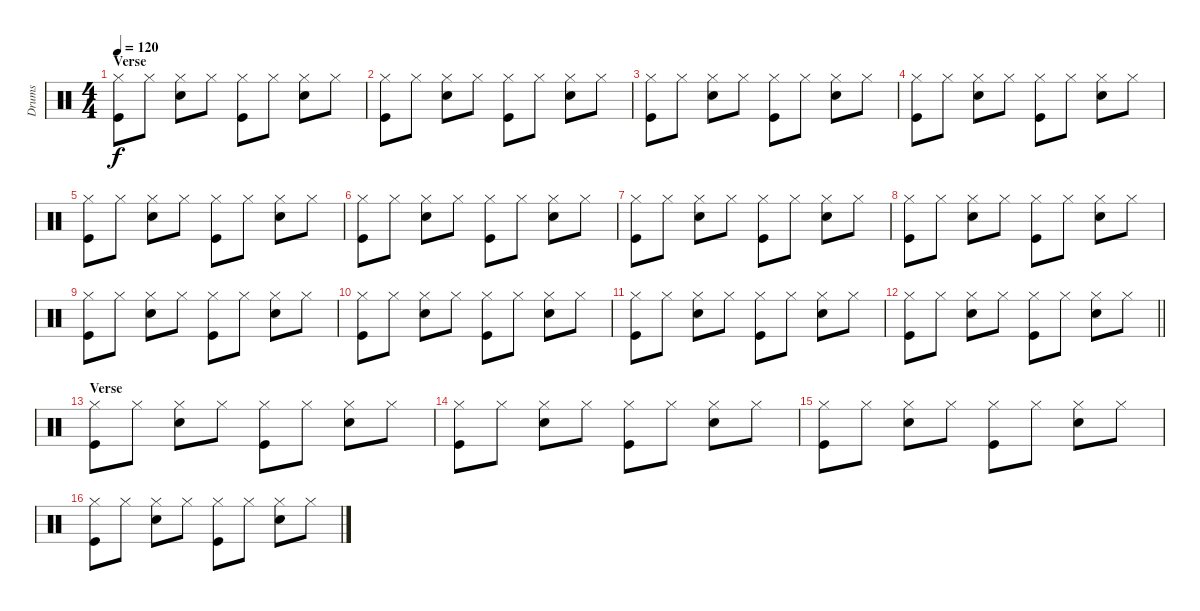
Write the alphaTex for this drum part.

\track ("Drums" "Drums") {instrument percussion}
\staff {score}
\articulation defaults
\ts (4 4)
\section ("" "Verse")
\tempo 120
\clef neutral
\ks c
("Hi-Hat (closed)" "Kick (hit)").8{dy f} "Hi-Hat (closed)".8 ("Hi-Hat (closed)" "Snare (hit) 2").8 "Hi-Hat (closed)".8 ("Hi-Hat (closed)" "Kick (hit)").8 "Hi-Hat (closed)".8 ("Hi-Hat (closed)" "Snare (hit) 2").8 "Hi-Hat (closed)".8 |
("Hi-Hat (closed)" "Kick (hit)").8 "Hi-Hat (closed)".8 ("Hi-Hat (closed)" "Snare (hit) 2").8 "Hi-Hat (closed)".8 ("Hi-Hat (closed)" "Kick (hit)").8 "Hi-Hat (closed)".8 ("Hi-Hat (closed)" "Snare (hit) 2").8 "Hi-Hat (closed)".8 |
("Hi-Hat (closed)" "Kick (hit)").8 "Hi-Hat (closed)".8 ("Hi-Hat (closed)" "Snare (hit) 2").8 "Hi-Hat (closed)".8 ("Hi-Hat (closed)" "Kick (hit)").8 "Hi-Hat (closed)".8 ("Hi-Hat (closed)" "Snare (hit) 2").8 "Hi-Hat (closed)".8 |
("Hi-Hat (closed)" "Kick (hit)").8 "Hi-Hat (closed)".8 ("Hi-Hat (closed)" "Snare (hit) 2").8 "Hi-Hat (closed)".8 ("Hi-Hat (closed)" "Kick (hit)").8 "Hi-Hat (closed)".8 ("Hi-Hat (closed)" "Snare (hit) 2").8 "Hi-Hat (closed)".8 |
("Hi-Hat (closed)" "Kick (hit)").8 "Hi-Hat (closed)".8 ("Hi-Hat (closed)" "Snare (hit) 2").8 "Hi-Hat (closed)".8 ("Hi-Hat (closed)" "Kick (hit)").8 "Hi-Hat (closed)".8 ("Hi-Hat (closed)" "Snare (hit) 2").8 "Hi-Hat (closed)".8 |
("Hi-Hat (closed)" "Kick (hit)").8 "Hi-Hat (closed)".8 ("Hi-Hat (closed)" "Snare (hit) 2").8 "Hi-Hat (closed)".8 ("Hi-Hat (closed)" "Kick (hit)").8 "Hi-Hat (closed)".8 ("Hi-Hat (closed)" "Snare (hit) 2").8 "Hi-Hat (closed)".8 |
("Hi-Hat (closed)" "Kick (hit)").8 "Hi-Hat (closed)".8 ("Hi-Hat (closed)" "Snare (hit) 2").8 "Hi-Hat (closed)".8 ("Hi-Hat (closed)" "Kick (hit)").8 "Hi-Hat (closed)".8 ("Hi-Hat (closed)" "Snare (hit) 2").8 "Hi-Hat (closed)".8 |
("Hi-Hat (closed)" "Kick (hit)").8 "Hi-Hat (closed)".8 ("Hi-Hat (closed)" "Snare (hit) 2").8 "Hi-Hat (closed)".8 ("Hi-Hat (closed)" "Kick (hit)").8 "Hi-Hat (closed)".8 ("Hi-Hat (closed)" "Snare (hit) 2").8 "Hi-Hat (closed)".8 |
("Hi-Hat (closed)" "Kick (hit)").8 "Hi-Hat (closed)".8 ("Hi-Hat (closed)" "Snare (hit) 2").8 "Hi-Hat (closed)".8 ("Hi-Hat (closed)" "Kick (hit)").8 "Hi-Hat (closed)".8 ("Hi-Hat (closed)" "Snare (hit) 2").8 "Hi-Hat (closed)".8 |
("Hi-Hat (closed)" "Kick (hit)").8 "Hi-Hat (closed)".8 ("Hi-Hat (closed)" "Snare (hit) 2").8 "Hi-Hat (closed)".8 ("Hi-Hat (closed)" "Kick (hit)").8 "Hi-Hat (closed)".8 ("Hi-Hat (closed)" "Snare (hit) 2").8 "Hi-Hat (closed)".8 |
("Hi-Hat (closed)" "Kick (hit)").8 "Hi-Hat (closed)".8 ("Hi-Hat (closed)" "Snare (hit) 2").8 "Hi-Hat (closed)".8 ("Hi-Hat (closed)" "Kick (hit)").8 "Hi-Hat (closed)".8 ("Hi-Hat (closed)" "Snare (hit) 2").8 "Hi-Hat (closed)".8 |
\barLineRight lightlight
("Hi-Hat (closed)" "Kick (hit)").8 "Hi-Hat (closed)".8 ("Hi-Hat (closed)" "Snare (hit) 2").8 "Hi-Hat (closed)".8 ("Hi-Hat (closed)" "Kick (hit)").8 "Hi-Hat (closed)".8 ("Hi-Hat (closed)" "Snare (hit) 2").8 "Hi-Hat (closed)".8 |
\section ("" "Verse")
("Hi-Hat (closed)" "Kick (hit)").8 "Hi-Hat (closed)".8 ("Hi-Hat (closed)" "Snare (hit) 2").8 "Hi-Hat (closed)".8 ("Hi-Hat (closed)" "Kick (hit)").8 "Hi-Hat (closed)".8 ("Hi-Hat (closed)" "Snare (hit) 2").8 "Hi-Hat (closed)".8 |
("Hi-Hat (closed)" "Kick (hit)").8 "Hi-Hat (closed)".8 ("Hi-Hat (closed)" "Snare (hit) 2").8 "Hi-Hat (closed)".8 ("Hi-Hat (closed)" "Kick (hit)").8 "Hi-Hat (closed)".8 ("Hi-Hat (closed)" "Snare (hit) 2").8 "Hi-Hat (closed)".8 |
("Hi-Hat (closed)" "Kick (hit)").8 "Hi-Hat (closed)".8 ("Hi-Hat (closed)" "Snare (hit) 2").8 "Hi-Hat (closed)".8 ("Hi-Hat (closed)" "Kick (hit)").8 "Hi-Hat (closed)".8 ("Hi-Hat (closed)" "Snare (hit) 2").8 "Hi-Hat (closed)".8 |
("Hi-Hat (closed)" "Kick (hit)").8 "Hi-Hat (closed)".8 ("Hi-Hat (closed)" "Snare (hit) 2").8 "Hi-Hat (closed)".8 ("Hi-Hat (closed)" "Kick (hit)").8 "Hi-Hat (closed)".8 ("Hi-Hat (closed)" "Snare (hit) 2").8 "Hi-Hat (closed)".8
